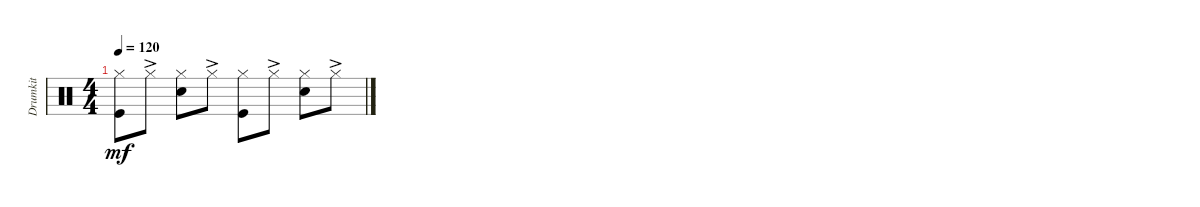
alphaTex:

\track ("Drumkit" "Drumkit") {instrument percussion}
\staff {score}
\articulation defaults
\ts (4 4)
\tempo 120
\clef neutral
\ks c
("Hi-Hat (closed)" "Kick (hit)").8{dy mf} "Hi-Hat (closed)"{ac}.8 ("Hi-Hat (closed)" "Snare (hit) 2").8 "Hi-Hat (closed)"{ac}.8 ("Hi-Hat (closed)" "Kick (hit)").8 "Hi-Hat (closed)"{ac}.8 ("Hi-Hat (closed)" "Snare (hit) 2").8 "Hi-Hat (closed)"{ac}.8
